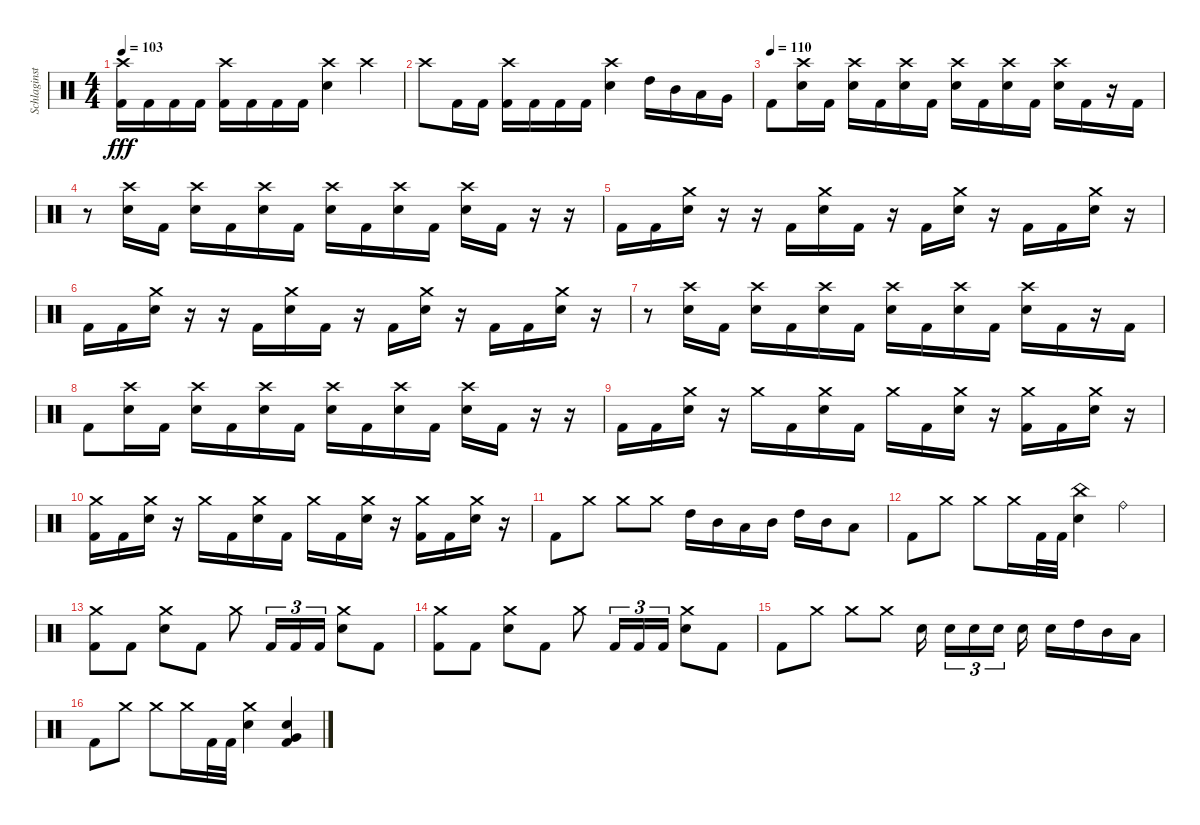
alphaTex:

\track ("Schlaginstrumente - Auswahl" "Schlaginst") {instrument percussion}
\staff {score}
\articulation defaults
\ts (4 4)
\tempo 103
\clef neutral
\ks c
("Crash high (hit)" "Kick (hit) 2").16{dy fff} "Kick (hit) 2".16 "Kick (hit) 2".16 "Kick (hit) 2".16 ("Crash high (hit)" "Kick (hit) 2").16 "Kick (hit) 2".16 "Kick (hit) 2".16 "Kick (hit) 2".16 ("Crash high (hit)" "Electric Snare (hit)").4 "Crash high (hit)".4 |
"Crash high (hit)".8 "Kick (hit) 2".16 "Kick (hit) 2".16 ("Crash high (hit)" "Kick (hit) 2").16 "Kick (hit) 2".16 "Kick (hit) 2".16 "Kick (hit) 2".16 ("Crash high (hit)" "Electric Snare (hit)").4 "High Tom (hit)".16 "Mid Tom (hit)".16 "Low Tom (hit)".16 "Very Low Tom (hit)".16 |
\tempo (110)
"Kick (hit) 2".8 ("Crash high (hit)" "Electric Snare (hit)").16 "Kick (hit) 2".16 ("Crash high (hit)" "Electric Snare (hit)").16 "Kick (hit) 2".16 ("Crash high (hit)" "Electric Snare (hit)").16 "Kick (hit) 2".16 ("Crash high (hit)" "Electric Snare (hit)").16 "Kick (hit) 2".16 ("Crash high (hit)" "Electric Snare (hit)").16 "Kick (hit) 2".16 ("Crash high (hit)" "Electric Snare (hit)").16 "Kick (hit) 2".16 r.16 "Kick (hit) 2".16 |
r.8 ("Crash high (hit)" "Electric Snare (hit)").16 "Kick (hit) 2".16 ("Crash high (hit)" "Electric Snare (hit)").16 "Kick (hit) 2".16 ("Crash high (hit)" "Electric Snare (hit)").16 "Kick (hit) 2".16 ("Crash high (hit)" "Electric Snare (hit)").16 "Kick (hit) 2".16 ("Crash high (hit)" "Electric Snare (hit)").16 "Kick (hit) 2".16 ("Crash high (hit)" "Electric Snare (hit)").16 "Kick (hit) 2".16 r.16 r.16 |
"Kick (hit) 2".16 "Kick (hit) 2".16 ("Crash medium (hit)" "Electric Snare (hit)").16 r.16 r.16 "Kick (hit) 2".16 ("Crash medium (hit)" "Electric Snare (hit)").16 "Kick (hit) 2".16 r.16 "Kick (hit) 2".16 ("Crash medium (hit)" "Electric Snare (hit)").16 r.16 "Kick (hit) 2".16 "Kick (hit) 2".16 ("Crash medium (hit)" "Electric Snare (hit)").16 r.16 |
"Kick (hit) 2".16 "Kick (hit) 2".16 ("Crash medium (hit)" "Electric Snare (hit)").16 r.16 r.16 "Kick (hit) 2".16 ("Crash medium (hit)" "Electric Snare (hit)").16 "Kick (hit) 2".16 r.16 "Kick (hit) 2".16 ("Crash medium (hit)" "Electric Snare (hit)").16 r.16 "Kick (hit) 2".16 "Kick (hit) 2".16 ("Crash medium (hit)" "Electric Snare (hit)").16 r.16 |
r.8 ("Crash high (hit)" "Electric Snare (hit)").16 "Kick (hit) 2".16 ("Crash high (hit)" "Electric Snare (hit)").16 "Kick (hit) 2".16 ("Crash high (hit)" "Electric Snare (hit)").16 "Kick (hit) 2".16 ("Crash high (hit)" "Electric Snare (hit)").16 "Kick (hit) 2".16 ("Crash high (hit)" "Electric Snare (hit)").16 "Kick (hit) 2".16 ("Crash high (hit)" "Electric Snare (hit)").16 "Kick (hit) 2".16 r.16 "Kick (hit) 2".16 |
"Kick (hit) 2".8 ("Crash high (hit)" "Electric Snare (hit)").16 "Kick (hit) 2".16 ("Crash high (hit)" "Electric Snare (hit)").16 "Kick (hit) 2".16 ("Crash high (hit)" "Electric Snare (hit)").16 "Kick (hit) 2".16 ("Crash high (hit)" "Electric Snare (hit)").16 "Kick (hit) 2".16 ("Crash high (hit)" "Electric Snare (hit)").16 "Kick (hit) 2".16 ("Crash high (hit)" "Electric Snare (hit)").16 "Kick (hit) 2".16 r.16 r.16 |
"Kick (hit) 2".16 "Kick (hit) 2".16 ("Crash medium (hit)" "Electric Snare (hit)").16 r.16 "Crash medium (hit)".16 "Kick (hit) 2".16 ("Crash medium (hit)" "Electric Snare (hit)").16 "Kick (hit) 2".16 "Crash medium (hit)".16 "Kick (hit) 2".16 ("Crash medium (hit)" "Electric Snare (hit)").16 r.16 ("Crash medium (hit)" "Kick (hit) 2").16 "Kick (hit) 2".16 ("Crash medium (hit)" "Electric Snare (hit)").16 r.16 |
("Crash medium (hit)" "Kick (hit) 2").16 "Kick (hit) 2".16 ("Crash medium (hit)" "Electric Snare (hit)").16 r.16 "Crash medium (hit)".16 "Kick (hit) 2".16 ("Crash medium (hit)" "Electric Snare (hit)").16 "Kick (hit) 2".16 "Crash medium (hit)".16 "Kick (hit) 2".16 ("Crash medium (hit)" "Electric Snare (hit)").16 r.16 ("Crash medium (hit)" "Kick (hit) 2").16 "Kick (hit) 2".16 ("Crash medium (hit)" "Electric Snare (hit)").16 r.16 |
"Kick (hit) 2".8 "Crash medium (hit)".8 "Crash medium (hit)".8 "Crash medium (hit)".8 "High Tom (hit)".16 "Mid Tom (hit)".16 "Low Tom (hit)".16 "Mid Tom (hit)".16 "High Tom (hit)".16 "Mid Tom (hit)".16 "Low Tom (hit)".8 |
"Kick (hit) 2".8 "Crash medium (hit)".8 "Crash medium (hit)".8 "Crash medium (hit)".16 "Kick (hit) 2".32 "Kick (hit) 2".32 ("China (hit)" "Electric Snare (hit)").4 "Ride (bell)".4 |
("Crash medium (hit)" "Kick (hit) 2").8 "Kick (hit) 2".8 ("Crash medium (hit)" "Electric Snare (hit)").8 "Kick (hit) 2".8 "Crash medium (hit)".8 "Kick (hit) 2".16{tu (3 2)} "Kick (hit) 2".16{tu (3 2)} "Kick (hit) 2".16{tu (3 2)} ("Crash medium (hit)" "Electric Snare (hit)").8 "Kick (hit) 2".8 |
("Crash medium (hit)" "Kick (hit) 2").8 "Kick (hit) 2".8 ("Crash medium (hit)" "Electric Snare (hit)").8 "Kick (hit) 2".8 "Crash medium (hit)".8 "Kick (hit) 2".16{tu (3 2)} "Kick (hit) 2".16{tu (3 2)} "Kick (hit) 2".16{tu (3 2)} ("Crash medium (hit)" "Electric Snare (hit)").8 "Kick (hit) 2".8 |
"Kick (hit) 2".8 "Crash medium (hit)".8 "Crash medium (hit)".8 "Crash medium (hit)".8 "Electric Snare (hit)".16{beam splitsecondary} "Electric Snare (hit)".16{tu (3 2)} "Electric Snare (hit)".16{tu (3 2)} "Electric Snare (hit)".16{tu (3 2) beam splitsecondary} "Electric Snare (hit)".16 "Electric Snare (hit)".16 "High Tom (hit)".16 "Mid Tom (hit)".16 "Low Tom (hit)".16 |
"Kick (hit) 2".8 "Crash medium (hit)".8 "Crash medium (hit)".8 "Crash medium (hit)".16 "Kick (hit) 2".32 "Kick (hit) 2".32 ("Crash medium (hit)" "Electric Snare (hit)").4 ("Very Low Tom (hit)" "Electric Snare (hit)" "Kick (hit) 2").4
